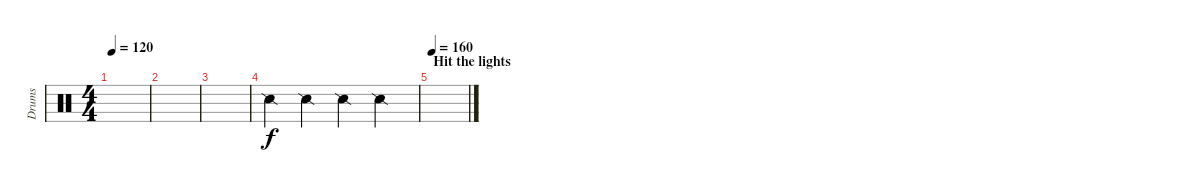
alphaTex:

\track ("Drums" "Drums") {instrument percussion}
\staff {score}
\articulation defaults
\ts (4 4)
\tempo 120
\clef neutral
\ks c
|
|
|
"Snare (side stick) 2".4 "Snare (side stick) 2".4 "Snare (side stick) 2".4 "Snare (side stick) 2".4 |
\section ("" "Hit the lights")
\tempo 160
